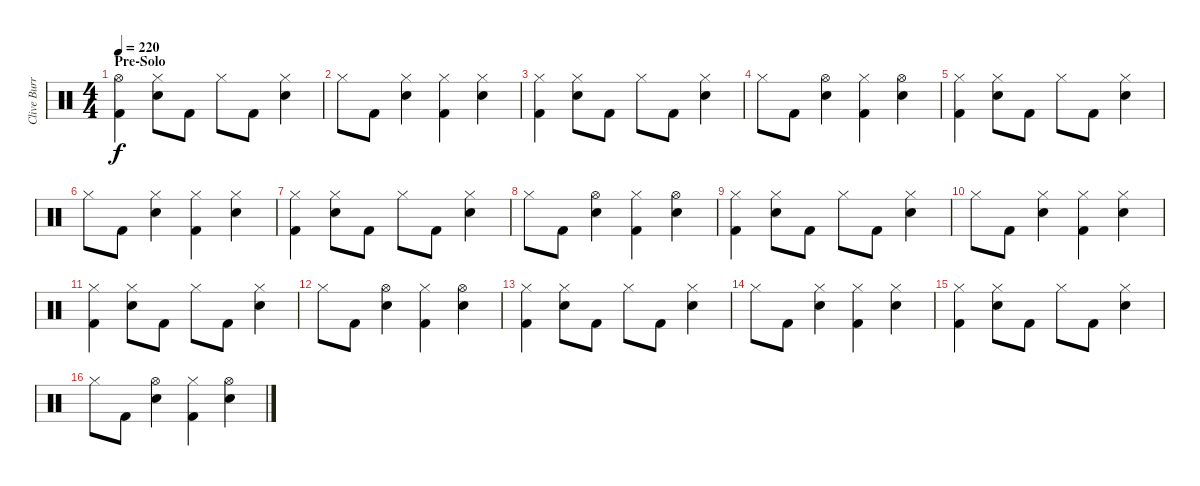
\track ("Clive Burr (Drums)" "Clive Burr") {instrument percussion}
\staff {score}
\articulation defaults
\ts (4 4)
\section ("" "Pre-Solo")
\tempo 220
\clef neutral
\ks c
("Hi-Hat (open)" "Kick (hit) 2").4{dy f} ("Electric Snare (hit)" "Hi-Hat (closed)").8 "Kick (hit) 2".8 "Hi-Hat (closed)".8 "Kick (hit) 2".8 ("Electric Snare (hit)" "Hi-Hat (closed)").4 |
"Hi-Hat (closed)".8 "Kick (hit) 2".8 ("Electric Snare (hit)" "Hi-Hat (closed)").4 ("Hi-Hat (closed)" "Kick (hit) 2").4 ("Electric Snare (hit)" "Hi-Hat (closed)").4 |
("Hi-Hat (closed)" "Kick (hit) 2").4 ("Electric Snare (hit)" "Hi-Hat (closed)").8 "Kick (hit) 2".8 "Hi-Hat (closed)".8 "Kick (hit) 2".8 ("Electric Snare (hit)" "Hi-Hat (closed)").4 |
"Hi-Hat (closed)".8 "Kick (hit) 2".8 ("Electric Snare (hit)" "Hi-Hat (open)").4 ("Hi-Hat (closed)" "Kick (hit) 2").4 ("Electric Snare (hit)" "Hi-Hat (open)").4 |
("Hi-Hat (closed)" "Kick (hit) 2").4 ("Electric Snare (hit)" "Hi-Hat (closed)").8 "Kick (hit) 2".8 "Hi-Hat (closed)".8 "Kick (hit) 2".8 ("Electric Snare (hit)" "Hi-Hat (closed)").4 |
"Hi-Hat (closed)".8 "Kick (hit) 2".8 ("Electric Snare (hit)" "Hi-Hat (closed)").4 ("Hi-Hat (closed)" "Kick (hit) 2").4 ("Electric Snare (hit)" "Hi-Hat (closed)").4 |
("Hi-Hat (closed)" "Kick (hit) 2").4 ("Electric Snare (hit)" "Hi-Hat (closed)").8 "Kick (hit) 2".8 "Hi-Hat (closed)".8 "Kick (hit) 2".8 ("Electric Snare (hit)" "Hi-Hat (closed)").4 |
"Hi-Hat (closed)".8 "Kick (hit) 2".8 ("Electric Snare (hit)" "Hi-Hat (open)").4 ("Hi-Hat (closed)" "Kick (hit) 2").4 ("Electric Snare (hit)" "Hi-Hat (open)").4 |
("Hi-Hat (closed)" "Kick (hit) 2").4 ("Electric Snare (hit)" "Hi-Hat (closed)").8 "Kick (hit) 2".8 "Hi-Hat (closed)".8 "Kick (hit) 2".8 ("Electric Snare (hit)" "Hi-Hat (closed)").4 |
"Hi-Hat (closed)".8 "Kick (hit) 2".8 ("Electric Snare (hit)" "Hi-Hat (closed)").4 ("Hi-Hat (closed)" "Kick (hit) 2").4 ("Electric Snare (hit)" "Hi-Hat (closed)").4 |
("Hi-Hat (closed)" "Kick (hit) 2").4 ("Electric Snare (hit)" "Hi-Hat (closed)").8 "Kick (hit) 2".8 "Hi-Hat (closed)".8 "Kick (hit) 2".8 ("Electric Snare (hit)" "Hi-Hat (closed)").4 |
"Hi-Hat (closed)".8 "Kick (hit) 2".8 ("Electric Snare (hit)" "Hi-Hat (open)").4 ("Hi-Hat (closed)" "Kick (hit) 2").4 ("Electric Snare (hit)" "Hi-Hat (open)").4 |
("Hi-Hat (closed)" "Kick (hit) 2").4 ("Electric Snare (hit)" "Hi-Hat (closed)").8 "Kick (hit) 2".8 "Hi-Hat (closed)".8 "Kick (hit) 2".8 ("Electric Snare (hit)" "Hi-Hat (closed)").4 |
"Hi-Hat (closed)".8 "Kick (hit) 2".8 ("Electric Snare (hit)" "Hi-Hat (closed)").4 ("Hi-Hat (closed)" "Kick (hit) 2").4 ("Electric Snare (hit)" "Hi-Hat (closed)").4 |
("Hi-Hat (closed)" "Kick (hit) 2").4 ("Electric Snare (hit)" "Hi-Hat (closed)").8 "Kick (hit) 2".8 "Hi-Hat (closed)".8 "Kick (hit) 2".8 ("Electric Snare (hit)" "Hi-Hat (closed)").4 |
"Hi-Hat (closed)".8 "Kick (hit) 2".8 ("Electric Snare (hit)" "Hi-Hat (open)").4 ("Hi-Hat (closed)" "Kick (hit) 2").4 ("Electric Snare (hit)" "Hi-Hat (open)").4
